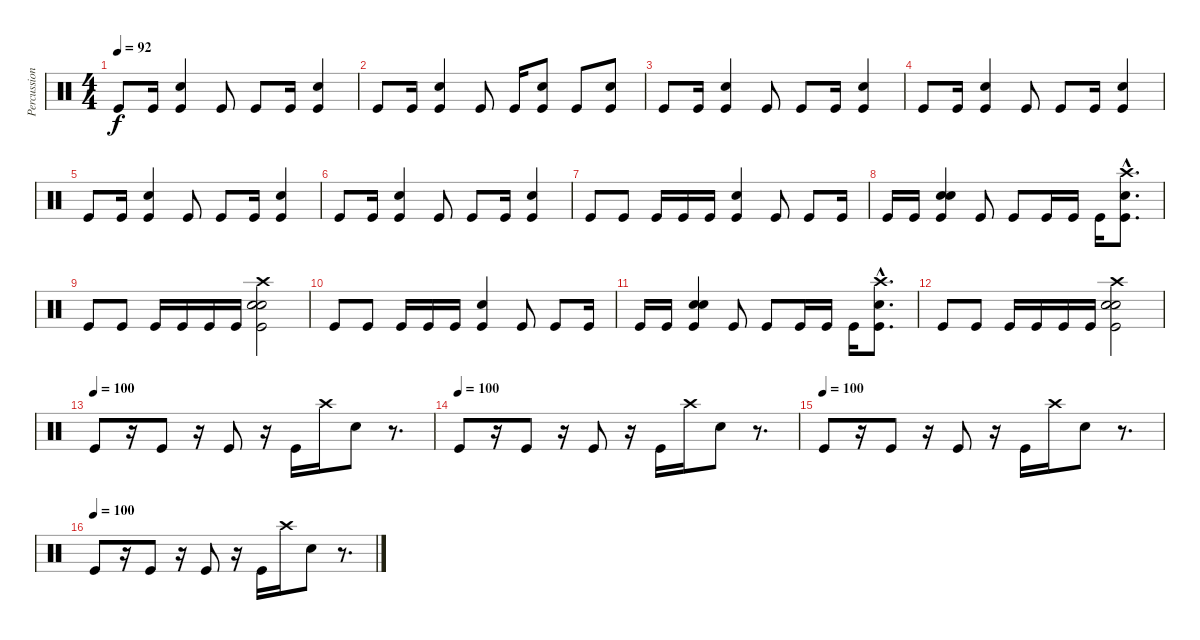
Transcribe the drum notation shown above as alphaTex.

\track ("Percussion" "Percussion") {instrument percussion}
\staff {score}
\articulation defaults
\ts (4 4)
\tempo 92
\clef neutral
\ks c "Kick (hit)".8{dy f} "Kick (hit)".16
("Kick (hit)" "Electric Snare (hit)").4 "Kick (hit)".8 "Kick (hit)".8 "Kick (hit)".16 ("Kick (hit)" "Electric Snare (hit)").4 |
"Kick (hit)".8 "Kick (hit)".16 ("Kick (hit)" "Electric Snare (hit)").4 "Kick (hit)".8 "Kick (hit)".16 ("Kick (hit)" "Electric Snare (hit)").8 "Kick (hit)".8 ("Kick (hit)" "Electric Snare (hit)").8 |
"Kick (hit)".8 "Kick (hit)".16 ("Kick (hit)" "Electric Snare (hit)").4 "Kick (hit)".8 "Kick (hit)".8 "Kick (hit)".16 ("Kick (hit)" "Electric Snare (hit)").4 |
"Kick (hit)".8 "Kick (hit)".16 ("Kick (hit)" "Electric Snare (hit)").4 "Kick (hit)".8 "Kick (hit)".8 "Kick (hit)".16 ("Kick (hit)" "Electric Snare (hit)").4 |
"Kick (hit)".8 "Kick (hit)".16 ("Kick (hit)" "Electric Snare (hit)").4 "Kick (hit)".8 "Kick (hit)".8 "Kick (hit)".16 ("Kick (hit)" "Electric Snare (hit)").4 |
"Kick (hit)".8 "Kick (hit)".16 ("Kick (hit)" "Electric Snare (hit)").4 "Kick (hit)".8 "Kick (hit)".8 "Kick (hit)".16 ("Kick (hit)" "Electric Snare (hit)").4 |
"Kick (hit)".8 "Kick (hit)".8 "Kick (hit)".16 "Kick (hit)".16 "Kick (hit)".16 ("Kick (hit)" "Electric Snare (hit)").4 "Kick (hit)".8 "Kick (hit)".8 "Kick (hit)".16 |
"Kick (hit)".16 "Kick (hit)".16 ("Kick (hit)" "Snare (hit) 2" "Electric Snare (hit)").4 "Kick (hit)".8 "Kick (hit)".8 "Kick (hit)".16 "Kick (hit)".16 "Kick (hit)".16 ("Kick (hit)"{hac} "Crash high (hit)"{hac} "Snare (hit) 2"{hac}).8{d} |
"Kick (hit)".8 "Kick (hit)".8 "Kick (hit)".16 "Kick (hit)".16 "Kick (hit)".16 "Kick (hit)".16 ("Kick (hit)" "Electric Snare (hit)" "Snare (hit) 2" "Crash high (hit)").2 |
"Kick (hit)".8 "Kick (hit)".8 "Kick (hit)".16 "Kick (hit)".16 "Kick (hit)".16 ("Kick (hit)" "Electric Snare (hit)").4 "Kick (hit)".8 "Kick (hit)".8 "Kick (hit)".16 |
"Kick (hit)".16 "Kick (hit)".16 ("Kick (hit)" "Snare (hit) 2" "Electric Snare (hit)").4 "Kick (hit)".8 "Kick (hit)".8 "Kick (hit)".16 "Kick (hit)".16 "Kick (hit)".16 ("Kick (hit)"{hac} "Crash high (hit)"{hac} "Snare (hit) 2"{hac}).8{d} |
"Kick (hit)".8 "Kick (hit)".8 "Kick (hit)".16 "Kick (hit)".16 "Kick (hit)".16 "Kick (hit)".16 ("Kick (hit)" "Electric Snare (hit)" "Snare (hit) 2" "Crash high (hit)").2 |
\tempo (100)
"Kick (hit)".8 r.16 "Kick (hit)".8 r.16 "Kick (hit)".8 r.16 "Kick (hit)".16 "Crash high (hit)".16 "Electric Snare (hit)".8 r.8{d} |
\tempo (100)
"Kick (hit)".8 r.16 "Kick (hit)".8 r.16 "Kick (hit)".8 r.16 "Kick (hit)".16 "Crash high (hit)".16 "Electric Snare (hit)".8 r.8{d} |
\tempo (100)
"Kick (hit)".8 r.16 "Kick (hit)".8 r.16 "Kick (hit)".8 r.16 "Kick (hit)".16 "Crash high (hit)".16 "Electric Snare (hit)".8 r.8{d} |
\tempo (100)
"Kick (hit)".8 r.16 "Kick (hit)".8 r.16 "Kick (hit)".8 r.16 "Kick (hit)".16 "Crash high (hit)".16 "Electric Snare (hit)".8 r.8{d}
